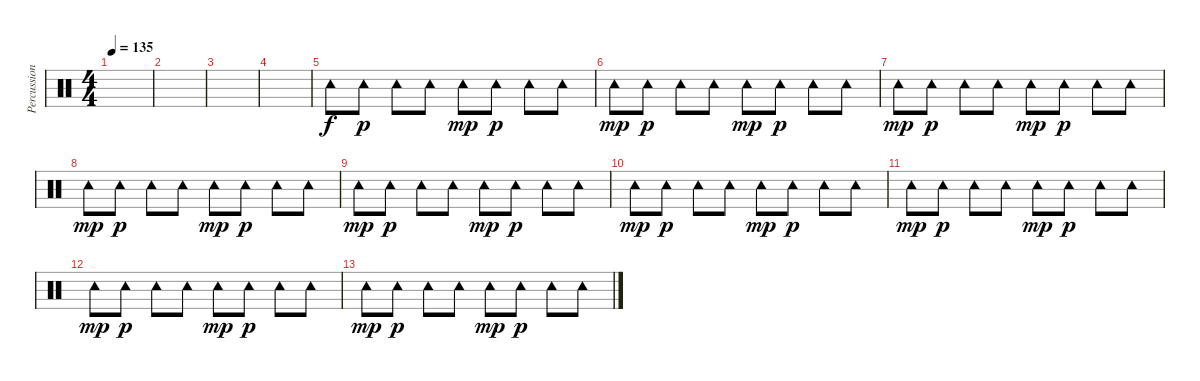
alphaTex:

\track ("Percussion2" "Percussion") {instrument percussion}
\staff {score}
\articulation defaults
\ts (4 4)
\tempo 135
\clef neutral
\ks c
|
|
|
|
"Tambourine (hit)".8 "Tambourine (hit)".8{dy p} "Tambourine (hit)".8 "Tambourine (hit)".8 "Tambourine (hit)".8{dy mp} "Tambourine (hit)".8{dy p} "Tambourine (hit)".8 "Tambourine (hit)".8 |
"Tambourine (hit)".8{dy mp} "Tambourine (hit)".8{dy p} "Tambourine (hit)".8 "Tambourine (hit)".8 "Tambourine (hit)".8{dy mp} "Tambourine (hit)".8{dy p} "Tambourine (hit)".8 "Tambourine (hit)".8 |
"Tambourine (hit)".8{dy mp} "Tambourine (hit)".8{dy p} "Tambourine (hit)".8 "Tambourine (hit)".8 "Tambourine (hit)".8{dy mp} "Tambourine (hit)".8{dy p} "Tambourine (hit)".8 "Tambourine (hit)".8 |
"Tambourine (hit)".8{dy mp} "Tambourine (hit)".8{dy p} "Tambourine (hit)".8 "Tambourine (hit)".8 "Tambourine (hit)".8{dy mp} "Tambourine (hit)".8{dy p} "Tambourine (hit)".8 "Tambourine (hit)".8 |
"Tambourine (hit)".8{dy mp} "Tambourine (hit)".8{dy p} "Tambourine (hit)".8 "Tambourine (hit)".8 "Tambourine (hit)".8{dy mp} "Tambourine (hit)".8{dy p} "Tambourine (hit)".8 "Tambourine (hit)".8 |
"Tambourine (hit)".8{dy mp} "Tambourine (hit)".8{dy p} "Tambourine (hit)".8 "Tambourine (hit)".8 "Tambourine (hit)".8{dy mp} "Tambourine (hit)".8{dy p} "Tambourine (hit)".8 "Tambourine (hit)".8 |
"Tambourine (hit)".8{dy mp} "Tambourine (hit)".8{dy p} "Tambourine (hit)".8 "Tambourine (hit)".8 "Tambourine (hit)".8{dy mp} "Tambourine (hit)".8{dy p} "Tambourine (hit)".8 "Tambourine (hit)".8 |
"Tambourine (hit)".8{dy mp} "Tambourine (hit)".8{dy p} "Tambourine (hit)".8 "Tambourine (hit)".8 "Tambourine (hit)".8{dy mp} "Tambourine (hit)".8{dy p} "Tambourine (hit)".8 "Tambourine (hit)".8 |
"Tambourine (hit)".8{dy mp} "Tambourine (hit)".8{dy p} "Tambourine (hit)".8 "Tambourine (hit)".8 "Tambourine (hit)".8{dy mp} "Tambourine (hit)".8{dy p} "Tambourine (hit)".8 "Tambourine (hit)".8
